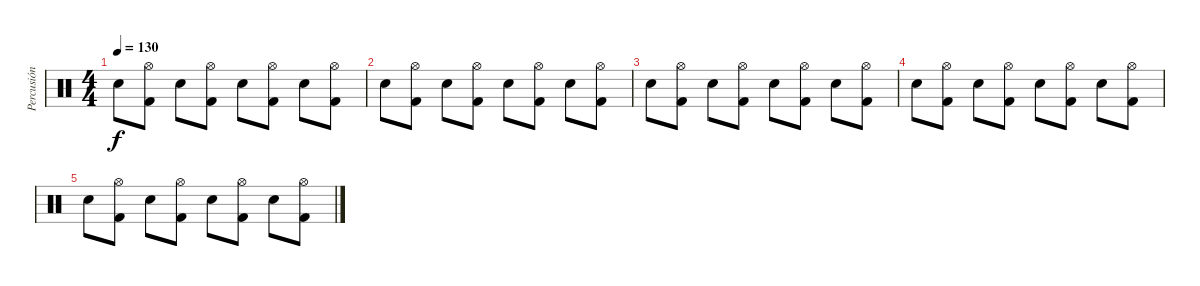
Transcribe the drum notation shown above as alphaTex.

\track ("Percusión" "Percusión") {instrument percussion}
\staff {score}
\articulation defaults
\ts (4 4)
\tempo 130
\clef neutral
\ks c "Snare (hit) 2".8{dy f}
("Hi-Hat (open)" "Kick (hit) 2").8 "Snare (hit) 2".8 ("Hi-Hat (open)" "Kick (hit) 2").8 "Snare (hit) 2".8 ("Hi-Hat (open)" "Kick (hit) 2").8 "Snare (hit) 2".8 ("Hi-Hat (open)" "Kick (hit) 2").8 |
"Snare (hit) 2".8 ("Hi-Hat (open)" "Kick (hit) 2").8 "Snare (hit) 2".8 ("Hi-Hat (open)" "Kick (hit) 2").8 "Snare (hit) 2".8 ("Hi-Hat (open)" "Kick (hit) 2").8 "Snare (hit) 2".8 ("Hi-Hat (open)" "Kick (hit) 2").8 |
"Snare (hit) 2".8 ("Hi-Hat (open)" "Kick (hit) 2").8 "Snare (hit) 2".8 ("Hi-Hat (open)" "Kick (hit) 2").8 "Snare (hit) 2".8 ("Hi-Hat (open)" "Kick (hit) 2").8 "Snare (hit) 2".8 ("Hi-Hat (open)" "Kick (hit) 2").8 |
"Snare (hit) 2".8 ("Hi-Hat (open)" "Kick (hit) 2").8 "Snare (hit) 2".8 ("Hi-Hat (open)" "Kick (hit) 2").8 "Snare (hit) 2".8 ("Hi-Hat (open)" "Kick (hit) 2").8 "Snare (hit) 2".8 ("Hi-Hat (open)" "Kick (hit) 2").8 |
"Snare (hit) 2".8 ("Hi-Hat (open)" "Kick (hit) 2").8 "Snare (hit) 2".8 ("Hi-Hat (open)" "Kick (hit) 2").8 "Snare (hit) 2".8 ("Hi-Hat (open)" "Kick (hit) 2").8 "Snare (hit) 2".8 ("Hi-Hat (open)" "Kick (hit) 2").8
